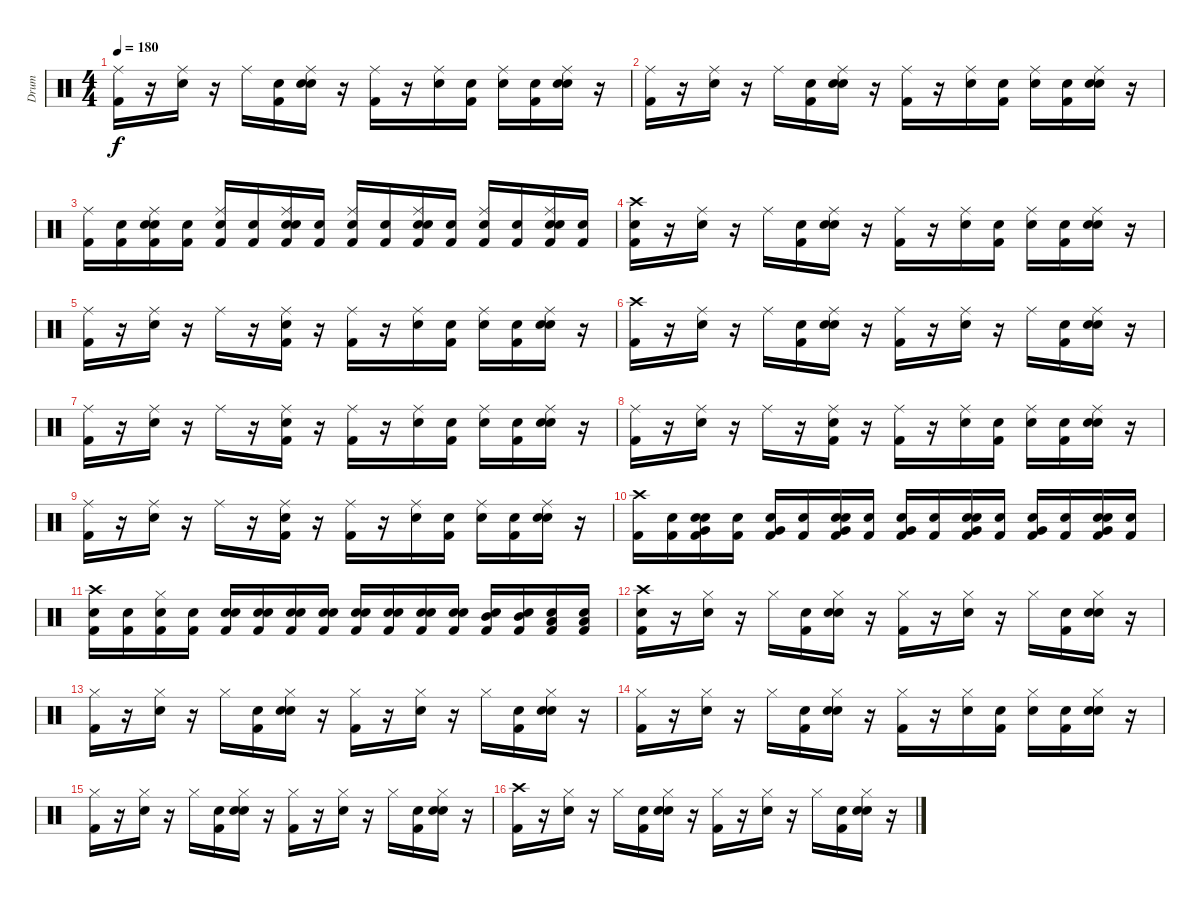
\track ("Drum" "Drum") {instrument percussion}
\staff {score}
\articulation defaults
\ts (4 4)
\tempo 180
\clef neutral
\ks c
("Kick (hit) 2" "Ride (middle)").16{dy f} r.16 ("Snare (hit) 2" "Ride (middle)").16 r.16 "Ride (middle)".16 ("Snare (hit)" "Kick (hit) 2").16 ("Snare (hit)" "Snare (hit) 2" "Ride (middle)").16 r.16 ("Kick (hit) 2" "Ride (middle)").16 r.16 ("Snare (hit) 2" "Ride (middle)").16 ("Snare (hit)" "Kick (hit) 2").16 ("Snare (hit)" "Ride (middle)").16 ("Snare (hit)" "Kick (hit) 2").16 ("Snare (hit)" "Snare (hit) 2" "Ride (middle)").16 r.16 |
("Kick (hit) 2" "Ride (middle)").16 r.16 ("Snare (hit) 2" "Ride (middle)").16 r.16 "Ride (middle)".16 ("Snare (hit)" "Kick (hit) 2").16 ("Snare (hit)" "Snare (hit) 2" "Ride (middle)").16 r.16 ("Kick (hit) 2" "Ride (middle)").16 r.16 ("Snare (hit) 2" "Ride (middle)").16 ("Snare (hit)" "Kick (hit) 2").16 ("Snare (hit)" "Ride (middle)").16 ("Snare (hit)" "Kick (hit) 2").16 ("Snare (hit)" "Snare (hit) 2" "Ride (middle)").16 r.16 |
("Ride (middle)" "Kick (hit) 2").16 ("Snare (hit)" "Kick (hit) 2").16 ("Snare (hit)" "Snare (hit) 2" "Ride (middle)" "Kick (hit) 2").16 ("Snare (hit)" "Kick (hit) 2").16 ("Snare (hit)" "Ride (middle)" "Kick (hit) 2").16 ("Snare (hit)" "Kick (hit) 2").16 ("Snare (hit)" "Snare (hit) 2" "Ride (middle)" "Kick (hit) 2").16 ("Snare (hit)" "Kick (hit) 2").16 ("Snare (hit)" "Ride (middle)" "Kick (hit) 2").16 ("Snare (hit)" "Kick (hit) 2").16 ("Snare (hit)" "Ride (middle)" "Kick (hit) 2" "Snare (hit) 2").16 ("Snare (hit)" "Kick (hit) 2").16 ("Snare (hit)" "Ride (middle)" "Kick (hit) 2").16 ("Snare (hit)" "Kick (hit) 2").16 ("Snare (hit)" "Snare (hit) 2" "Ride (middle)" "Kick (hit) 2").16 ("Snare (hit)" "Kick (hit) 2").16 |
("Snare (hit)" "Crash high (hit)" "Kick (hit) 2").16 r.16 ("Snare (hit) 2" "Ride (middle)").16 r.16 "Ride (middle)".16 ("Snare (hit)" "Kick (hit) 2").16 ("Snare (hit)" "Snare (hit) 2" "Ride (middle)").16 r.16 ("Kick (hit) 2" "Ride (middle)").16 r.16 ("Snare (hit) 2" "Ride (middle)").16 ("Snare (hit)" "Kick (hit) 2").16 ("Snare (hit)" "Ride (middle)").16 ("Snare (hit)" "Kick (hit) 2").16 ("Snare (hit)" "Snare (hit) 2" "Ride (middle)").16 r.16 |
("Kick (hit) 2" "Ride (middle)").16 r.16 ("Snare (hit) 2" "Ride (middle)").16 r.16 "Ride (middle)".16 r.16 ("Kick (hit) 2" "Snare (hit) 2" "Ride (middle)").16 r.16 ("Kick (hit) 2" "Ride (middle)").16 r.16 ("Snare (hit) 2" "Ride (middle)").16 ("Snare (hit)" "Kick (hit) 2").16 ("Snare (hit)" "Ride (middle)").16 ("Snare (hit)" "Kick (hit) 2").16 ("Snare (hit)" "Ride (middle)" "Snare (hit) 2").16 r.16 |
("Kick (hit) 2" "Crash high (hit)").16 r.16 ("Snare (hit) 2" "Ride (middle)").16 r.16 "Ride (middle)".16 ("Snare (hit)" "Kick (hit) 2").16 ("Snare (hit)" "Snare (hit) 2" "Ride (middle)").16 r.16 ("Kick (hit) 2" "Ride (middle)").16 r.16 ("Snare (hit) 2" "Ride (middle)").16 r.16 "Ride (middle)".16 ("Snare (hit)" "Kick (hit) 2").16 ("Snare (hit)" "Snare (hit) 2" "Ride (middle)").16 r.16 |
("Kick (hit) 2" "Ride (middle)").16 r.16 ("Snare (hit) 2" "Ride (middle)").16 r.16 "Ride (middle)".16 r.16 ("Kick (hit) 2" "Snare (hit) 2" "Ride (middle)").16 r.16 ("Kick (hit) 2" "Ride (middle)").16 r.16 ("Snare (hit) 2" "Ride (middle)").16 ("Snare (hit)" "Kick (hit) 2").16 ("Snare (hit)" "Ride (middle)").16 ("Snare (hit)" "Kick (hit) 2").16 ("Snare (hit)" "Ride (middle)" "Snare (hit) 2").16 r.16 |
("Kick (hit) 2" "Ride (middle)").16 r.16 ("Snare (hit) 2" "Ride (middle)").16 r.16 "Ride (middle)".16 r.16 ("Kick (hit) 2" "Snare (hit) 2" "Ride (middle)").16 r.16 ("Kick (hit) 2" "Ride (middle)").16 r.16 ("Snare (hit) 2" "Ride (middle)").16 ("Snare (hit)" "Kick (hit) 2").16 ("Snare (hit)" "Ride (middle)").16 ("Snare (hit)" "Kick (hit) 2").16 ("Snare (hit)" "Ride (middle)" "Snare (hit) 2").16 r.16 |
("Kick (hit) 2" "Ride (middle)").16 r.16 ("Snare (hit) 2" "Ride (middle)").16 r.16 "Ride (middle)".16 r.16 ("Kick (hit) 2" "Snare (hit) 2" "Ride (middle)").16 r.16 ("Kick (hit) 2" "Ride (middle)").16 r.16 ("Snare (hit) 2" "Ride (middle)").16 ("Snare (hit)" "Kick (hit) 2").16 ("Snare (hit)" "Ride (middle)").16 ("Snare (hit)" "Kick (hit) 2").16 ("Snare (hit)" "Ride (middle)" "Snare (hit) 2").16 r.16 |
("Kick (hit) 2" "Crash high (hit)").16 ("Snare (hit)" "Kick (hit) 2").16 ("Snare (hit)" "Very Low Tom (hit)" "Snare (hit) 2" "Kick (hit) 2").16 ("Snare (hit)" "Kick (hit) 2").16 ("Snare (hit)" "Very Low Tom (hit)" "Kick (hit) 2").16 ("Snare (hit)" "Kick (hit) 2").16 ("Snare (hit)" "Very Low Tom (hit)" "Snare (hit) 2" "Kick (hit) 2").16 ("Snare (hit)" "Kick (hit) 2").16 ("Snare (hit)" "Very Low Tom (hit)" "Kick (hit) 2").16 ("Snare (hit)" "Kick (hit) 2").16 ("Snare (hit)" "Very Low Tom (hit)" "Snare (hit) 2" "Kick (hit) 2").16 ("Snare (hit)" "Kick (hit) 2").16 ("Snare (hit)" "Very Low Tom (hit)" "Kick (hit) 2").16 ("Snare (hit)" "Kick (hit) 2").16 ("Snare (hit)" "Very Low Tom (hit)" "Snare (hit) 2" "Kick (hit) 2").16 ("Snare (hit)" "Kick (hit) 2").16 |
("Snare (hit)" "Kick (hit) 2" "Crash high (hit)").16 ("Snare (hit)" "Kick (hit) 2").16 ("Snare (hit)" "Kick (hit) 2" "Hi-Hat (closed)").16 ("Snare (hit)" "Kick (hit) 2").16 ("Snare (hit)" "Snare (hit) 2" "Kick (hit) 2").16 ("Snare (hit)" "Snare (hit) 2" "Kick (hit) 2").16 ("Snare (hit)" "Snare (hit) 2" "Kick (hit) 2").16 ("Snare (hit)" "Snare (hit) 2" "Kick (hit) 2").16 ("Snare (hit)" "Snare (hit) 2" "Kick (hit) 2").16 ("Snare (hit)" "Snare (hit) 2" "Kick (hit) 2").16 ("Snare (hit)" "Snare (hit) 2" "Kick (hit) 2").16 ("Snare (hit)" "Snare (hit) 2" "Kick (hit) 2").16 ("Snare (hit)" "Mid Tom (hit)" "Kick (hit) 2").16 ("Snare (hit)" "Mid Tom (hit)" "Kick (hit) 2").16 ("Snare (hit)" "Low Tom (hit)" "Kick (hit) 2").16 ("Snare (hit)" "Low Tom (hit)" "Kick (hit) 2").16 |
("Snare (hit)" "Kick (hit) 2" "Crash high (hit)").16 r.16 ("Snare (hit) 2" "Hi-Hat (closed)").16 r.16 "Hi-Hat (closed)".16 ("Snare (hit)" "Kick (hit) 2").16 ("Snare (hit)" "Snare (hit) 2" "Hi-Hat (closed)").16 r.16 ("Kick (hit) 2" "Hi-Hat (closed)").16 r.16 ("Snare (hit) 2" "Hi-Hat (closed)").16 r.16 "Hi-Hat (closed)".16 ("Snare (hit)" "Kick (hit) 2").16 ("Snare (hit)" "Snare (hit) 2" "Hi-Hat (closed)").16 r.16 |
("Kick (hit) 2" "Hi-Hat (closed)").16 r.16 ("Snare (hit) 2" "Hi-Hat (closed)").16 r.16 "Hi-Hat (closed)".16 ("Snare (hit)" "Kick (hit) 2").16 ("Snare (hit)" "Snare (hit) 2" "Hi-Hat (closed)").16 r.16 ("Kick (hit) 2" "Hi-Hat (closed)").16 r.16 ("Snare (hit) 2" "Hi-Hat (closed)").16 r.16 "Hi-Hat (closed)".16 ("Snare (hit)" "Kick (hit) 2").16 ("Snare (hit)" "Snare (hit) 2" "Hi-Hat (closed)").16 r.16 |
("Kick (hit) 2" "Hi-Hat (closed)").16 r.16 ("Hi-Hat (closed)" "Snare (hit) 2").16 r.16 "Hi-Hat (closed)".16 ("Snare (hit)" "Kick (hit) 2").16 ("Snare (hit)" "Snare (hit) 2" "Hi-Hat (closed)").16 r.16 ("Kick (hit) 2" "Hi-Hat (closed)").16 r.16 ("Snare (hit) 2" "Hi-Hat (closed)").16 ("Snare (hit)" "Kick (hit) 2").16 ("Snare (hit)" "Hi-Hat (closed)").16 ("Snare (hit)" "Kick (hit) 2").16 ("Snare (hit)" "Snare (hit) 2" "Hi-Hat (closed)").16 r.16 |
("Kick (hit) 2" "Hi-Hat (closed)").16 r.16 ("Snare (hit) 2" "Hi-Hat (closed)").16 r.16 "Hi-Hat (closed)".16 ("Snare (hit)" "Kick (hit) 2").16 ("Snare (hit)" "Snare (hit) 2" "Hi-Hat (closed)").16 r.16 ("Kick (hit) 2" "Hi-Hat (closed)").16 r.16 ("Snare (hit) 2" "Hi-Hat (closed)").16 r.16 "Hi-Hat (closed)".16 ("Snare (hit)" "Kick (hit) 2").16 ("Snare (hit)" "Snare (hit) 2" "Hi-Hat (closed)").16 r.16 |
("Kick (hit) 2" "Crash high (hit)").16 r.16 ("Snare (hit) 2" "Hi-Hat (closed)").16 r.16 "Hi-Hat (closed)".16 ("Snare (hit)" "Kick (hit) 2").16 ("Snare (hit)" "Snare (hit) 2" "Hi-Hat (closed)").16 r.16 ("Kick (hit) 2" "Hi-Hat (closed)").16 r.16 ("Snare (hit) 2" "Hi-Hat (closed)").16 r.16 "Hi-Hat (closed)".16 ("Snare (hit)" "Kick (hit) 2").16 ("Snare (hit)" "Snare (hit) 2" "Hi-Hat (closed)").16 r.16
